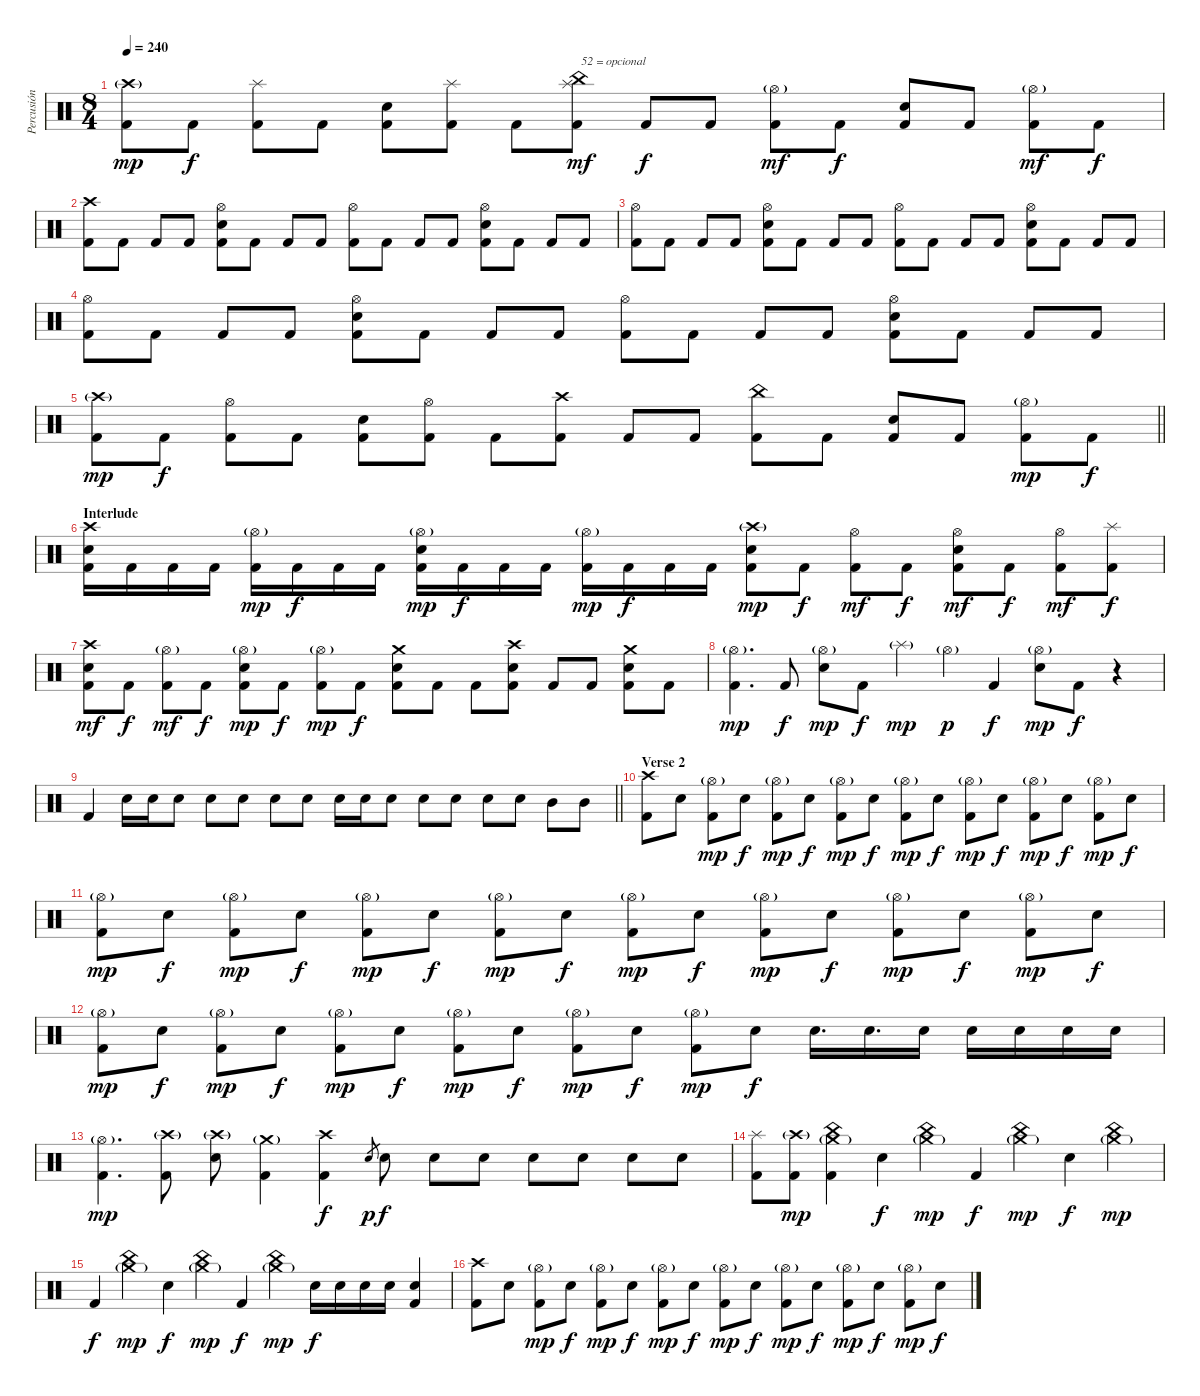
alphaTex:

\track ("Percusión" "Percusión") {instrument percussion}
\staff {score}
\articulation defaults
\ts (8 4)
\tempo 240
\clef neutral
\ks c
("Crash high (hit)"{g} "Kick (hit) 2").8{dy mp} "Kick (hit) 2".8{dy f} ("Splash (hit)" "Kick (hit) 2").8 "Kick (hit) 2".8 ("Electric Snare (hit)" "Kick (hit) 2").8 ("Splash (hit)" "Kick (hit) 2").8 "Kick (hit) 2".8 ("Splash (hit)" "China (hit)" "Kick (hit) 2").8{txt "52 = opcional" dy mf} "Kick (hit) 2".8{dy f} "Kick (hit) 2".8 ("Hi-Hat (open)"{g} "Kick (hit) 2").8{dy mf} "Kick (hit) 2".8{dy f} ("Electric Snare (hit)" "Kick (hit) 2").8 "Kick (hit) 2".8 ("Hi-Hat (open)"{g} "Kick (hit) 2").8{dy mf} "Kick (hit) 2".8{dy f} |
("Crash high (hit)" "Kick (hit) 2").8 "Kick (hit) 2".8 "Kick (hit) 2".8 "Kick (hit) 2".8 ("Hi-Hat (open)" "Electric Snare (hit)" "Kick (hit) 2").8 "Kick (hit) 2".8 "Kick (hit) 2".8 "Kick (hit) 2".8 ("Hi-Hat (open)" "Kick (hit) 2").8 "Kick (hit) 2".8 "Kick (hit) 2".8 "Kick (hit) 2".8 ("Hi-Hat (open)" "Electric Snare (hit)" "Kick (hit) 2").8 "Kick (hit) 2".8 "Kick (hit) 2".8 "Kick (hit) 2".8 |
("Hi-Hat (open)" "Kick (hit) 2").8 "Kick (hit) 2".8 "Kick (hit) 2".8 "Kick (hit) 2".8 ("Hi-Hat (open)" "Electric Snare (hit)" "Kick (hit) 2").8 "Kick (hit) 2".8 "Kick (hit) 2".8 "Kick (hit) 2".8 ("Hi-Hat (open)" "Kick (hit) 2").8 "Kick (hit) 2".8 "Kick (hit) 2".8 "Kick (hit) 2".8 ("Hi-Hat (open)" "Electric Snare (hit)" "Kick (hit) 2").8 "Kick (hit) 2".8 "Kick (hit) 2".8 "Kick (hit) 2".8 |
("Hi-Hat (open)" "Kick (hit) 2").8 "Kick (hit) 2".8 "Kick (hit) 2".8 "Kick (hit) 2".8 ("Hi-Hat (open)" "Electric Snare (hit)" "Kick (hit) 2").8 "Kick (hit) 2".8 "Kick (hit) 2".8 "Kick (hit) 2".8 ("Hi-Hat (open)" "Kick (hit) 2").8 "Kick (hit) 2".8 "Kick (hit) 2".8 "Kick (hit) 2".8 ("Hi-Hat (open)" "Electric Snare (hit)" "Kick (hit) 2").8 "Kick (hit) 2".8 "Kick (hit) 2".8 "Kick (hit) 2".8 |
\barLineRight lightlight
("Crash high (hit)"{g} "Kick (hit) 2").8{dy mp} "Kick (hit) 2".8{dy f} ("Hi-Hat (open)" "Kick (hit) 2").8 "Kick (hit) 2".8 ("Electric Snare (hit)" "Kick (hit) 2").8 ("Hi-Hat (open)" "Kick (hit) 2").8 "Kick (hit) 2".8 ("Crash high (hit)" "Kick (hit) 2").8 "Kick (hit) 2".8 "Kick (hit) 2".8 ("China (hit)" "Kick (hit) 2").8 "Kick (hit) 2".8 ("Electric Snare (hit)" "Kick (hit) 2").8 "Kick (hit) 2".8 ("Hi-Hat (open)"{g} "Kick (hit) 2").8{dy mp} "Kick (hit) 2".8{dy f} |
\section ("" "Interlude")
("Crash high (hit)" "Electric Snare (hit)" "Kick (hit) 2").16 "Kick (hit) 2".16 "Kick (hit) 2".16 "Kick (hit) 2".16 ("Hi-Hat (open)"{g} "Kick (hit) 2").16{dy mp} "Kick (hit) 2".16{dy f} "Kick (hit) 2".16 "Kick (hit) 2".16 ("Hi-Hat (open)"{g} "Electric Snare (hit)" "Kick (hit) 2").16{dy mp} "Kick (hit) 2".16{dy f} "Kick (hit) 2".16 "Kick (hit) 2".16 ("Hi-Hat (open)"{g} "Kick (hit) 2").16{dy mp} "Kick (hit) 2".16{dy f} "Kick (hit) 2".16 "Kick (hit) 2".16 ("Crash high (hit)"{g} "Electric Snare (hit)" "Kick (hit) 2").8{dy mp} "Kick (hit) 2".8{dy f} ("Hi-Hat (open)" "Kick (hit) 2").8{dy mf} "Kick (hit) 2".8{dy f} ("Hi-Hat (open)" "Electric Snare (hit)" "Kick (hit) 2").8{dy mf} "Kick (hit) 2".8{dy f} ("Hi-Hat (open)" "Kick (hit) 2").8{dy mf} ("Splash (hit)" "Kick (hit) 2").8{dy f} |
("Crash high (hit)" "Electric Snare (hit)" "Kick (hit) 2").8{dy mf} "Kick (hit) 2".8{dy f} ("Hi-Hat (open)"{g} "Kick (hit) 2").8{dy mf} "Kick (hit) 2".8{dy f} ("Hi-Hat (open)"{g} "Electric Snare (hit)" "Kick (hit) 2").8{dy mp} "Kick (hit) 2".8{dy f} ("Hi-Hat (open)"{g} "Kick (hit) 2").8{dy mp} "Kick (hit) 2".8{dy f} ("Crash medium (hit)" "Electric Snare (hit)" "Kick (hit) 2").8 "Kick (hit) 2".8 "Kick (hit) 2".8 ("Crash high (hit)" "Electric Snare (hit)" "Kick (hit) 2").8 "Kick (hit) 2".8 "Kick (hit) 2".8 ("Crash medium (hit)" "Electric Snare (hit)" "Kick (hit) 2").8 "Kick (hit) 2".8 |
("Hi-Hat (open)"{g} "Kick (hit) 2").4{d dy mp} "Kick (hit) 2".8{dy f} ("Hi-Hat (open)"{g} "Electric Snare (hit)").8{dy mp} "Kick (hit) 2".8{dy f} "Splash (hit)"{g}.4{dy mp} "Hi-Hat (open)"{g}.4{dy p} "Kick (hit) 2".4{dy f} ("Hi-Hat (open)"{g} "Electric Snare (hit)").8{dy mp} "Kick (hit) 2".8{dy f} r.4 |
\barLineRight lightlight "Kick (hit) 2".4 "Electric Snare (hit)".16 "Electric Snare (hit)".16 "Electric Snare (hit)".8 "Electric Snare (hit)".8 "Electric Snare (hit)".8 "Electric Snare (hit)".8 "Electric Snare (hit)".8 "Electric Snare (hit)".16 "Electric Snare (hit)".16 "Electric Snare (hit)".8 "Electric Snare (hit)".8 "Electric Snare (hit)".8 "Electric Snare (hit)".8 "Electric Snare (hit)".8 "Mid Tom (hit)".8 "Mid Tom (hit)".8
|
\section ("" "Verse 2")
("Crash high (hit)" "Kick (hit) 2").8 "Electric Snare (hit)".8 ("Hi-Hat (open)"{g} "Kick (hit) 2").8{dy mp} "Electric Snare (hit)".8{dy f} ("Hi-Hat (open)"{g} "Kick (hit) 2").8{dy mp} "Electric Snare (hit)".8{dy f} ("Hi-Hat (open)"{g} "Kick (hit) 2").8{dy mp} "Electric Snare (hit)".8{dy f} ("Hi-Hat (open)"{g} "Kick (hit) 2").8{dy mp} "Electric Snare (hit)".8{dy f} ("Hi-Hat (open)"{g} "Kick (hit) 2").8{dy mp} "Electric Snare (hit)".8{dy f} ("Hi-Hat (open)"{g} "Kick (hit) 2").8{dy mp} "Electric Snare (hit)".8{dy f} ("Hi-Hat (open)"{g} "Kick (hit) 2").8{dy mp} "Electric Snare (hit)".8{dy f} |
("Hi-Hat (open)"{g} "Kick (hit) 2").8{dy mp} "Electric Snare (hit)".8{dy f} ("Hi-Hat (open)"{g} "Kick (hit) 2").8{dy mp} "Electric Snare (hit)".8{dy f} ("Hi-Hat (open)"{g} "Kick (hit) 2").8{dy mp} "Electric Snare (hit)".8{dy f} ("Hi-Hat (open)"{g} "Kick (hit) 2").8{dy mp} "Electric Snare (hit)".8{dy f} ("Hi-Hat (open)"{g} "Kick (hit) 2").8{dy mp} "Electric Snare (hit)".8{dy f} ("Hi-Hat (open)"{g} "Kick (hit) 2").8{dy mp} "Electric Snare (hit)".8{dy f} ("Hi-Hat (open)"{g} "Kick (hit) 2").8{dy mp} "Electric Snare (hit)".8{dy f} ("Hi-Hat (open)"{g} "Kick (hit) 2").8{dy mp} "Electric Snare (hit)".8{dy f} |
("Hi-Hat (open)"{g} "Kick (hit) 2").8{dy mp} "Electric Snare (hit)".8{dy f} ("Hi-Hat (open)"{g} "Kick (hit) 2").8{dy mp} "Electric Snare (hit)".8{dy f} ("Hi-Hat (open)"{g} "Kick (hit) 2").8{dy mp} "Electric Snare (hit)".8{dy f} ("Hi-Hat (open)"{g} "Kick (hit) 2").8{dy mp} "Electric Snare (hit)".8{dy f} ("Hi-Hat (open)"{g} "Kick (hit) 2").8{dy mp} "Electric Snare (hit)".8{dy f} ("Hi-Hat (open)"{g} "Kick (hit) 2").8{dy mp} "Electric Snare (hit)".8{dy f} "Electric Snare (hit)".16{d} "Electric Snare (hit)".16{d} "Electric Snare (hit)".16 "Electric Snare (hit)".16 "Electric Snare (hit)".16 "Electric Snare (hit)".16 "Electric Snare (hit)".16 |
("Hi-Hat (open)"{g} "Kick (hit) 2").4{d dy mp} ("Crash high (hit)"{g} "Kick (hit) 2").8 ("Crash high (hit)"{g} "Electric Snare (hit)").8 ("Crash medium (hit)"{g} "Kick (hit) 2").4 ("Crash high (hit)" "Kick (hit) 2").4{dy f} "Electric Snare (hit)".8{gr dy p} "Electric Snare (hit)".8{dy f} "Electric Snare (hit)".8 "Electric Snare (hit)".8 "Electric Snare (hit)".8 "Electric Snare (hit)".8 "Electric Snare (hit)".8 "Electric Snare (hit)".8 |
("Splash (hit)" "Kick (hit) 2").8 ("Crash high (hit)"{g} "Kick (hit) 2").8{dy mp} ("Crash medium (hit)"{g} "China (hit)" "Kick (hit) 2").4 "Electric Snare (hit)".4{dy f} ("China (hit)" "Crash medium (hit)"{g}).4{dy mp} "Kick (hit) 2".4{dy f} ("China (hit)" "Crash medium (hit)"{g}).4{dy mp} "Electric Snare (hit)".4{dy f} ("China (hit)" "Crash medium (hit)"{g}).4{dy mp} |
"Kick (hit) 2".4{dy f} ("China (hit)" "Crash medium (hit)"{g}).4{dy mp} "Electric Snare (hit)".4{dy f} ("China (hit)" "Crash medium (hit)"{g}).4{dy mp} "Kick (hit) 2".4{dy f} ("China (hit)" "Crash medium (hit)"{g}).4{dy mp} "Electric Snare (hit)".16{dy f} "Electric Snare (hit)".16 "Electric Snare (hit)".16 "Electric Snare (hit)".16 ("Electric Snare (hit)" "Kick (hit) 2").4 |
("Crash high (hit)" "Kick (hit) 2").8 "Electric Snare (hit)".8 ("Hi-Hat (open)"{g} "Kick (hit) 2").8{dy mp} "Electric Snare (hit)".8{dy f} ("Hi-Hat (open)"{g} "Kick (hit) 2").8{dy mp} "Electric Snare (hit)".8{dy f} ("Hi-Hat (open)"{g} "Kick (hit) 2").8{dy mp} "Electric Snare (hit)".8{dy f} ("Hi-Hat (open)"{g} "Kick (hit) 2").8{dy mp} "Electric Snare (hit)".8{dy f} ("Hi-Hat (open)"{g} "Kick (hit) 2").8{dy mp} "Electric Snare (hit)".8{dy f} ("Hi-Hat (open)"{g} "Kick (hit) 2").8{dy mp} "Electric Snare (hit)".8{dy f} ("Hi-Hat (open)"{g} "Kick (hit) 2").8{dy mp} "Electric Snare (hit)".8{dy f}
